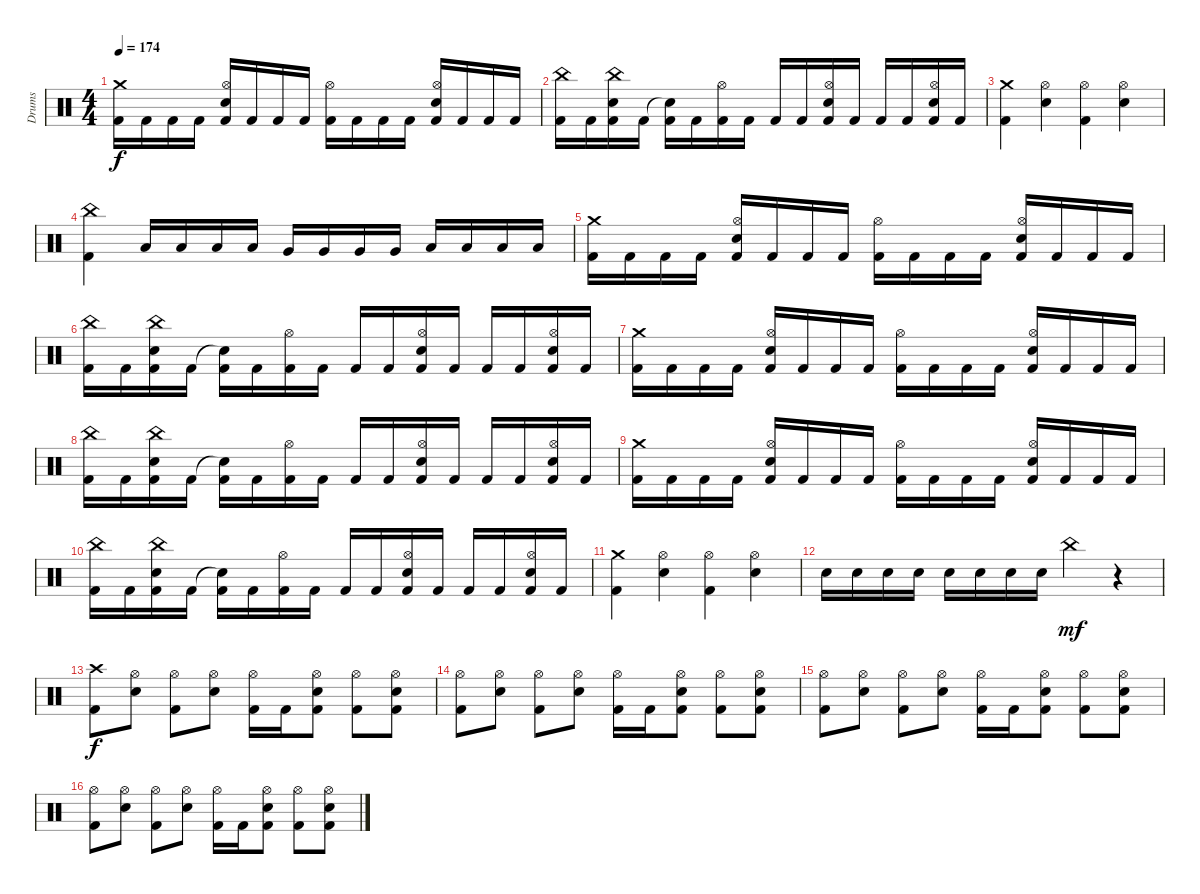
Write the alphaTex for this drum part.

\track ("Drums" "Drums") {instrument percussion}
\staff {score}
\articulation defaults
\ts (4 4)
\tempo 174
\clef neutral
\ks c
("Crash medium (hit)" "Kick (hit) 2").16{dy f} "Kick (hit) 2".16 "Kick (hit) 2".16 "Kick (hit) 2".16 ("Hi-Hat (open)" "Kick (hit) 2" "Electric Snare (hit)").16 "Kick (hit) 2".16 "Kick (hit) 2".16 "Kick (hit) 2".16 ("Hi-Hat (open)" "Kick (hit) 2").16 "Kick (hit) 2".16 "Kick (hit) 2".16 "Kick (hit) 2".16 ("Hi-Hat (open)" "Kick (hit) 2" "Electric Snare (hit)").16 "Kick (hit) 2".16 "Kick (hit) 2".16 "Kick (hit) 2".16 |
("China (hit)" "Kick (hit) 2").16 "Kick (hit) 2".16 ("China (hit)" "Kick (hit) 2" "Electric Snare (hit)").16 "Kick (hit) 2".16 ("Snare (hit)"{t} "Kick (hit) 2").16 "Kick (hit) 2".16 ("Hi-Hat (open)" "Kick (hit) 2").16 "Kick (hit) 2".16 "Kick (hit) 2".16 "Kick (hit) 2".16 ("Hi-Hat (open)" "Kick (hit) 2" "Electric Snare (hit)").16 "Kick (hit) 2".16 "Kick (hit) 2".16 "Kick (hit) 2".16 ("Hi-Hat (open)" "Kick (hit) 2" "Electric Snare (hit)").16 "Kick (hit) 2".16 |
("Crash medium (hit)" "Kick (hit) 2").4 ("Hi-Hat (open)" "Electric Snare (hit)").4 ("Hi-Hat (open)" "Kick (hit) 2").4 ("Hi-Hat (open)" "Electric Snare (hit)").4 |
("China (hit)" "Kick (hit) 2").4 "Low Tom (hit)".16 "Low Tom (hit)".16 "Low Tom (hit)".16 "Low Tom (hit)".16 "Very Low Tom (hit)".16 "Very Low Tom (hit)".16 "Very Low Tom (hit)".16 "Very Low Tom (hit)".16 "Low Floor Tom (hit)".16 "Low Floor Tom (hit)".16 "Low Floor Tom (hit)".16 "Low Floor Tom (hit)".16 |
("Crash medium (hit)" "Kick (hit) 2").16 "Kick (hit) 2".16 "Kick (hit) 2".16 "Kick (hit) 2".16 ("Hi-Hat (open)" "Kick (hit) 2" "Electric Snare (hit)").16 "Kick (hit) 2".16 "Kick (hit) 2".16 "Kick (hit) 2".16 ("Hi-Hat (open)" "Kick (hit) 2").16 "Kick (hit) 2".16 "Kick (hit) 2".16 "Kick (hit) 2".16 ("Hi-Hat (open)" "Kick (hit) 2" "Electric Snare (hit)").16 "Kick (hit) 2".16 "Kick (hit) 2".16 "Kick (hit) 2".16 |
("China (hit)" "Kick (hit) 2").16 "Kick (hit) 2".16 ("China (hit)" "Kick (hit) 2" "Electric Snare (hit)").16 "Kick (hit) 2".16 ("Snare (hit)"{t} "Kick (hit) 2").16 "Kick (hit) 2".16 ("Hi-Hat (open)" "Kick (hit) 2").16 "Kick (hit) 2".16 "Kick (hit) 2".16 "Kick (hit) 2".16 ("Hi-Hat (open)" "Kick (hit) 2" "Electric Snare (hit)").16 "Kick (hit) 2".16 "Kick (hit) 2".16 "Kick (hit) 2".16 ("Hi-Hat (open)" "Kick (hit) 2" "Electric Snare (hit)").16 "Kick (hit) 2".16 |
("Crash medium (hit)" "Kick (hit) 2").16 "Kick (hit) 2".16 "Kick (hit) 2".16 "Kick (hit) 2".16 ("Hi-Hat (open)" "Kick (hit) 2" "Electric Snare (hit)").16 "Kick (hit) 2".16 "Kick (hit) 2".16 "Kick (hit) 2".16 ("Hi-Hat (open)" "Kick (hit) 2").16 "Kick (hit) 2".16 "Kick (hit) 2".16 "Kick (hit) 2".16 ("Hi-Hat (open)" "Kick (hit) 2" "Electric Snare (hit)").16 "Kick (hit) 2".16 "Kick (hit) 2".16 "Kick (hit) 2".16 |
("China (hit)" "Kick (hit) 2").16 "Kick (hit) 2".16 ("China (hit)" "Kick (hit) 2" "Electric Snare (hit)").16 "Kick (hit) 2".16 ("Snare (hit)"{t} "Kick (hit) 2").16 "Kick (hit) 2".16 ("Hi-Hat (open)" "Kick (hit) 2").16 "Kick (hit) 2".16 "Kick (hit) 2".16 "Kick (hit) 2".16 ("Hi-Hat (open)" "Kick (hit) 2" "Electric Snare (hit)").16 "Kick (hit) 2".16 "Kick (hit) 2".16 "Kick (hit) 2".16 ("Hi-Hat (open)" "Kick (hit) 2" "Electric Snare (hit)").16 "Kick (hit) 2".16 |
("Crash medium (hit)" "Kick (hit) 2").16 "Kick (hit) 2".16 "Kick (hit) 2".16 "Kick (hit) 2".16 ("Hi-Hat (open)" "Kick (hit) 2" "Electric Snare (hit)").16 "Kick (hit) 2".16 "Kick (hit) 2".16 "Kick (hit) 2".16 ("Hi-Hat (open)" "Kick (hit) 2").16 "Kick (hit) 2".16 "Kick (hit) 2".16 "Kick (hit) 2".16 ("Hi-Hat (open)" "Kick (hit) 2" "Electric Snare (hit)").16 "Kick (hit) 2".16 "Kick (hit) 2".16 "Kick (hit) 2".16 |
("China (hit)" "Kick (hit) 2").16 "Kick (hit) 2".16 ("China (hit)" "Kick (hit) 2" "Electric Snare (hit)").16 "Kick (hit) 2".16 ("Snare (hit)"{t} "Kick (hit) 2").16 "Kick (hit) 2".16 ("Hi-Hat (open)" "Kick (hit) 2").16 "Kick (hit) 2".16 "Kick (hit) 2".16 "Kick (hit) 2".16 ("Hi-Hat (open)" "Kick (hit) 2" "Electric Snare (hit)").16 "Kick (hit) 2".16 "Kick (hit) 2".16 "Kick (hit) 2".16 ("Hi-Hat (open)" "Kick (hit) 2" "Electric Snare (hit)").16 "Kick (hit) 2".16 |
("Crash medium (hit)" "Kick (hit) 2").4 ("Hi-Hat (open)" "Electric Snare (hit)").4 ("Hi-Hat (open)" "Kick (hit) 2").4 ("Hi-Hat (open)" "Electric Snare (hit)").4 |
"Electric Snare (hit)".16 "Electric Snare (hit)".16 "Electric Snare (hit)".16 "Electric Snare (hit)".16 "Electric Snare (hit)".16 "Electric Snare (hit)".16 "Electric Snare (hit)".16 "Electric Snare (hit)".16 "China (hit)".4{dy mf} r.4 |
("Crash high (hit)" "Kick (hit) 2").8{dy f} ("Hi-Hat (open)" "Electric Snare (hit)").8 ("Hi-Hat (open)" "Kick (hit) 2").8 ("Hi-Hat (open)" "Electric Snare (hit)").8 ("Hi-Hat (open)" "Kick (hit) 2").16 "Kick (hit) 2".16 ("Hi-Hat (open)" "Electric Snare (hit)" "Kick (hit) 2").8 ("Hi-Hat (open)" "Kick (hit) 2").8 ("Hi-Hat (open)" "Electric Snare (hit)" "Kick (hit) 2").8 |
("Hi-Hat (open)" "Kick (hit) 2").8 ("Hi-Hat (open)" "Electric Snare (hit)").8 ("Hi-Hat (open)" "Kick (hit) 2").8 ("Hi-Hat (open)" "Electric Snare (hit)").8 ("Hi-Hat (open)" "Kick (hit) 2").16 "Kick (hit) 2".16 ("Hi-Hat (open)" "Electric Snare (hit)" "Kick (hit) 2").8 ("Hi-Hat (open)" "Kick (hit) 2").8 ("Hi-Hat (open)" "Electric Snare (hit)" "Kick (hit) 2").8 |
("Hi-Hat (open)" "Kick (hit) 2").8 ("Hi-Hat (open)" "Electric Snare (hit)").8 ("Hi-Hat (open)" "Kick (hit) 2").8 ("Hi-Hat (open)" "Electric Snare (hit)").8 ("Hi-Hat (open)" "Kick (hit) 2").16 "Kick (hit) 2".16 ("Hi-Hat (open)" "Electric Snare (hit)" "Kick (hit) 2").8 ("Hi-Hat (open)" "Kick (hit) 2").8 ("Hi-Hat (open)" "Electric Snare (hit)" "Kick (hit) 2").8 |
("Hi-Hat (open)" "Kick (hit) 2").8 ("Hi-Hat (open)" "Electric Snare (hit)").8 ("Hi-Hat (open)" "Kick (hit) 2").8 ("Hi-Hat (open)" "Electric Snare (hit)").8 ("Hi-Hat (open)" "Kick (hit) 2").16 "Kick (hit) 2".16 ("Hi-Hat (open)" "Electric Snare (hit)" "Kick (hit) 2").8 ("Hi-Hat (open)" "Kick (hit) 2").8 ("Hi-Hat (open)" "Electric Snare (hit)" "Kick (hit) 2").8
